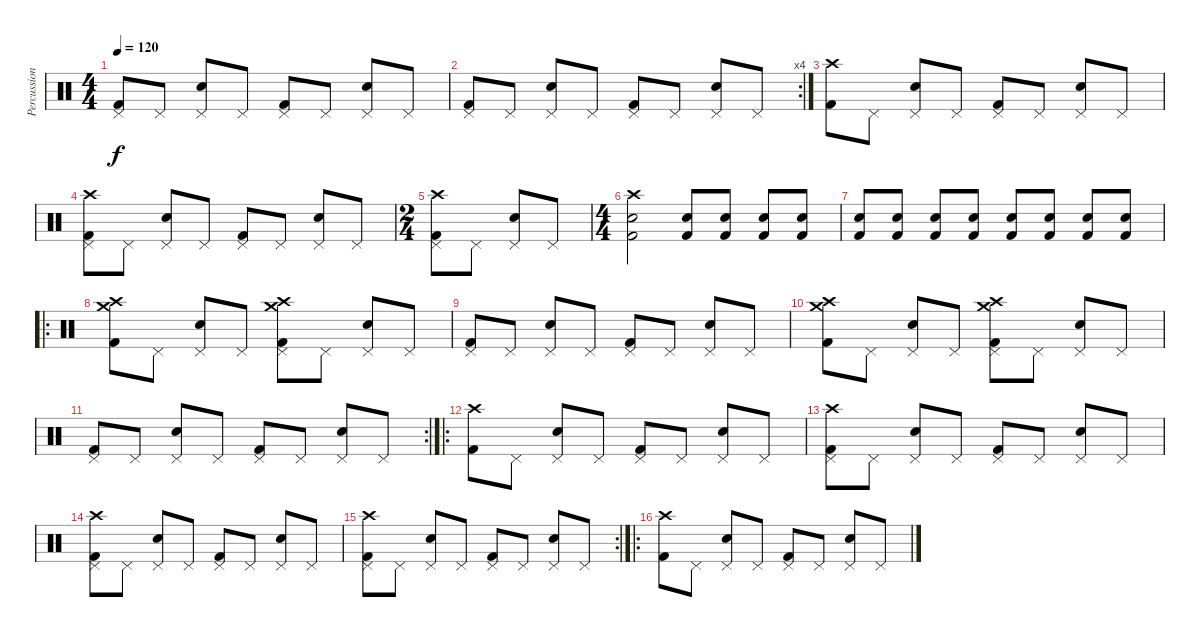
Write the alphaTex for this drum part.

\track ("Percussions" "Percussion") {instrument percussion}
\staff {score}
\articulation defaults
\ts (4 4)
\tempo 120
\clef neutral
\ks c
("Pedal Hi-Hat (hit)" "Kick (hit) 2").8{dy f} "Pedal Hi-Hat (hit)".8 ("Pedal Hi-Hat (hit)" "Snare (hit) 2").8 "Pedal Hi-Hat (hit)".8 ("Pedal Hi-Hat (hit)" "Kick (hit) 2").8 "Pedal Hi-Hat (hit)".8 ("Pedal Hi-Hat (hit)" "Snare (hit) 2").8 "Pedal Hi-Hat (hit)".8 |
\rc 4
("Pedal Hi-Hat (hit)" "Kick (hit) 2").8 "Pedal Hi-Hat (hit)".8 ("Pedal Hi-Hat (hit)" "Snare (hit) 2").8 "Pedal Hi-Hat (hit)".8 ("Pedal Hi-Hat (hit)" "Kick (hit) 2").8 "Pedal Hi-Hat (hit)".8 ("Pedal Hi-Hat (hit)" "Snare (hit) 2").8 "Pedal Hi-Hat (hit)".8 |
("Crash high (hit)" "Kick (hit) 2").8 "Pedal Hi-Hat (hit)".8 ("Pedal Hi-Hat (hit)" "Snare (hit) 2").8 "Pedal Hi-Hat (hit)".8 ("Pedal Hi-Hat (hit)" "Kick (hit) 2").8 "Pedal Hi-Hat (hit)".8 ("Pedal Hi-Hat (hit)" "Snare (hit) 2").8 "Pedal Hi-Hat (hit)".8 |
("Pedal Hi-Hat (hit)" "Crash high (hit)" "Kick (hit) 2").8 "Pedal Hi-Hat (hit)".8 ("Pedal Hi-Hat (hit)" "Snare (hit) 2").8 "Pedal Hi-Hat (hit)".8 ("Pedal Hi-Hat (hit)" "Kick (hit) 2").8 "Pedal Hi-Hat (hit)".8 ("Pedal Hi-Hat (hit)" "Snare (hit) 2").8 "Pedal Hi-Hat (hit)".8 |
\ts (2 4)
("Pedal Hi-Hat (hit)" "Crash high (hit)" "Kick (hit) 2").8 "Pedal Hi-Hat (hit)".8 ("Pedal Hi-Hat (hit)" "Snare (hit) 2").8 "Pedal Hi-Hat (hit)".8 |
\ts (4 4)
("Crash high (hit)" "Kick (hit) 2" "Snare (hit) 2").2 ("Kick (hit) 2" "Snare (hit) 2").8{volume 3} ("Kick (hit) 2" "Snare (hit) 2").8{volume 16} ("Kick (hit) 2" "Snare (hit) 2").8 ("Kick (hit) 2" "Snare (hit) 2").8 |
("Kick (hit) 2" "Snare (hit) 2").8 ("Kick (hit) 2" "Snare (hit) 2").8 ("Kick (hit) 2" "Snare (hit) 2").8 ("Kick (hit) 2" "Snare (hit) 2").8 ("Kick (hit) 2" "Snare (hit) 2").8 ("Kick (hit) 2" "Snare (hit) 2").8 ("Kick (hit) 2" "Snare (hit) 2").8 ("Kick (hit) 2" "Snare (hit) 2").8 |
\ro
("Crash high (hit)" "Crash medium (hit)" "Kick (hit) 2").8 "Pedal Hi-Hat (hit)".8 ("Pedal Hi-Hat (hit)" "Snare (hit) 2").8 "Pedal Hi-Hat (hit)".8 ("Pedal Hi-Hat (hit)" "Crash high (hit)" "Crash medium (hit)" "Kick (hit) 2").8 "Pedal Hi-Hat (hit)".8 ("Pedal Hi-Hat (hit)" "Snare (hit) 2").8 "Pedal Hi-Hat (hit)".8 |
("Pedal Hi-Hat (hit)" "Kick (hit) 2").8 "Pedal Hi-Hat (hit)".8 ("Pedal Hi-Hat (hit)" "Snare (hit) 2").8 "Pedal Hi-Hat (hit)".8 ("Pedal Hi-Hat (hit)" "Kick (hit) 2").8 "Pedal Hi-Hat (hit)".8 ("Pedal Hi-Hat (hit)" "Snare (hit) 2").8 "Pedal Hi-Hat (hit)".8 |
("Crash high (hit)" "Crash medium (hit)" "Kick (hit) 2").8 "Pedal Hi-Hat (hit)".8 ("Pedal Hi-Hat (hit)" "Snare (hit) 2").8 "Pedal Hi-Hat (hit)".8 ("Pedal Hi-Hat (hit)" "Crash high (hit)" "Crash medium (hit)" "Kick (hit) 2").8 "Pedal Hi-Hat (hit)".8 ("Pedal Hi-Hat (hit)" "Snare (hit) 2").8 "Pedal Hi-Hat (hit)".8 |
\rc 2
("Pedal Hi-Hat (hit)" "Kick (hit) 2").8 "Pedal Hi-Hat (hit)".8 ("Pedal Hi-Hat (hit)" "Snare (hit) 2").8 "Pedal Hi-Hat (hit)".8 ("Pedal Hi-Hat (hit)" "Kick (hit) 2").8 "Pedal Hi-Hat (hit)".8 ("Pedal Hi-Hat (hit)" "Snare (hit) 2").8 "Pedal Hi-Hat (hit)".8 |
\ro
("Crash high (hit)" "Kick (hit) 2").8 "Pedal Hi-Hat (hit)".8 ("Pedal Hi-Hat (hit)" "Snare (hit) 2").8 "Pedal Hi-Hat (hit)".8 ("Pedal Hi-Hat (hit)" "Kick (hit) 2").8 "Pedal Hi-Hat (hit)".8 ("Pedal Hi-Hat (hit)" "Snare (hit) 2").8 "Pedal Hi-Hat (hit)".8 |
("Pedal Hi-Hat (hit)" "Crash high (hit)" "Kick (hit) 2").8 "Pedal Hi-Hat (hit)".8 ("Pedal Hi-Hat (hit)" "Snare (hit) 2").8 "Pedal Hi-Hat (hit)".8 ("Pedal Hi-Hat (hit)" "Kick (hit) 2").8 "Pedal Hi-Hat (hit)".8 ("Pedal Hi-Hat (hit)" "Snare (hit) 2").8 "Pedal Hi-Hat (hit)".8 |
("Pedal Hi-Hat (hit)" "Crash high (hit)" "Kick (hit) 2").8 "Pedal Hi-Hat (hit)".8 ("Pedal Hi-Hat (hit)" "Snare (hit) 2").8 "Pedal Hi-Hat (hit)".8 ("Pedal Hi-Hat (hit)" "Kick (hit) 2").8 "Pedal Hi-Hat (hit)".8 ("Pedal Hi-Hat (hit)" "Snare (hit) 2").8 "Pedal Hi-Hat (hit)".8 |
\rc 2
("Pedal Hi-Hat (hit)" "Crash high (hit)" "Kick (hit) 2").8 "Pedal Hi-Hat (hit)".8 ("Pedal Hi-Hat (hit)" "Snare (hit) 2").8 "Pedal Hi-Hat (hit)".8 ("Pedal Hi-Hat (hit)" "Kick (hit) 2").8 "Pedal Hi-Hat (hit)".8 ("Pedal Hi-Hat (hit)" "Snare (hit) 2").8 "Pedal Hi-Hat (hit)".8 |
\ro
("Crash high (hit)" "Kick (hit) 2").8 "Pedal Hi-Hat (hit)".8 ("Pedal Hi-Hat (hit)" "Snare (hit) 2").8 "Pedal Hi-Hat (hit)".8 ("Pedal Hi-Hat (hit)" "Kick (hit) 2").8 "Pedal Hi-Hat (hit)".8 ("Pedal Hi-Hat (hit)" "Snare (hit) 2").8 "Pedal Hi-Hat (hit)".8
